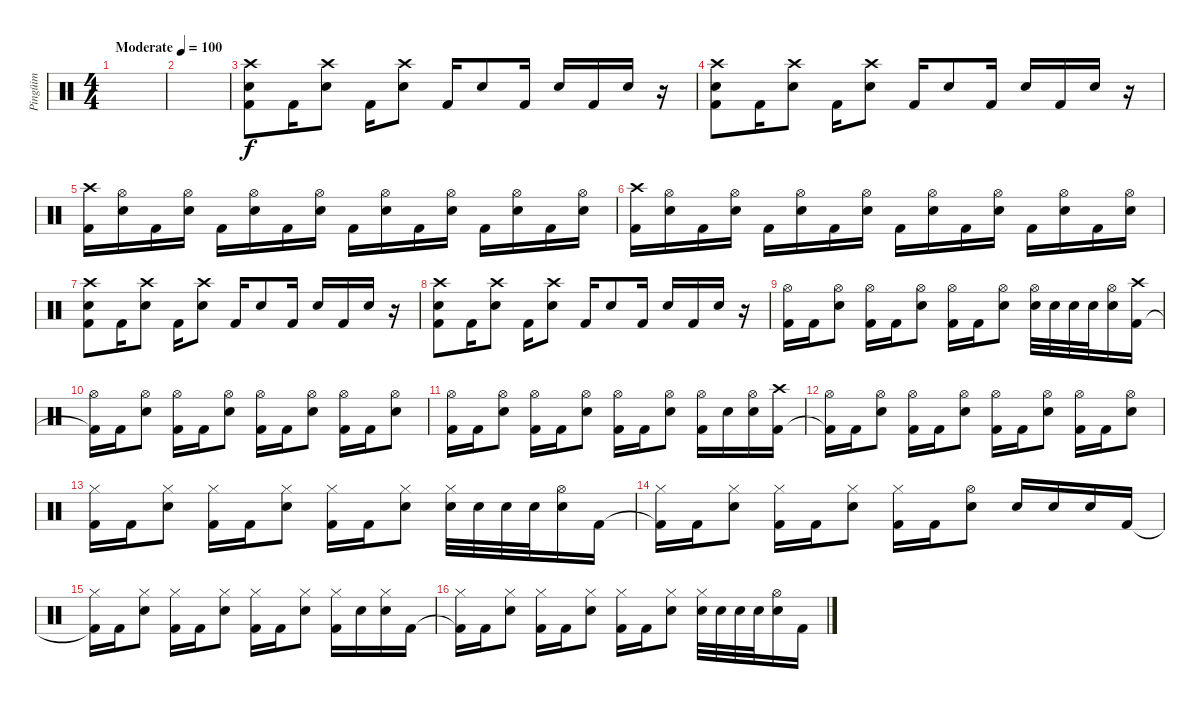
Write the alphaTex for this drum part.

\track ("Pingüim" "Pingüim") {instrument percussion}
\staff {score}
\articulation defaults
\ts (4 4)
\tempo (100 "Moderate")
\clef neutral
\ks c
|
|
("Snare (hit) 2" "Kick (hit) 2" "Crash high (hit)").8 "Kick (hit) 2".16 ("Snare (hit) 2" "Crash high (hit)").8 "Kick (hit) 2".16 ("Snare (hit) 2" "Crash high (hit)").8 "Kick (hit) 2".16 "Snare (hit) 2".8 "Kick (hit) 2".16 "Snare (hit) 2".16 "Kick (hit) 2".16 "Snare (hit) 2".16 r.16 |
("Snare (hit) 2" "Kick (hit) 2" "Crash high (hit)").8 "Kick (hit) 2".16 ("Snare (hit) 2" "Crash high (hit)").8 "Kick (hit) 2".16 ("Snare (hit) 2" "Crash high (hit)").8 "Kick (hit) 2".16 "Snare (hit) 2".8 "Kick (hit) 2".16 "Snare (hit) 2".16 "Kick (hit) 2".16 "Snare (hit) 2".16 r.16 |
("Kick (hit) 2" "Crash high (hit)").16 ("Snare (hit) 2" "Hi-Hat (open)").16 "Kick (hit) 2".16 ("Snare (hit) 2" "Hi-Hat (open)").16 "Kick (hit) 2".16 ("Snare (hit) 2" "Hi-Hat (open)").16 "Kick (hit) 2".16 ("Snare (hit) 2" "Hi-Hat (open)").16 "Kick (hit) 2".16 ("Snare (hit) 2" "Hi-Hat (open)").16 "Kick (hit) 2".16 ("Snare (hit) 2" "Hi-Hat (open)").16 "Kick (hit) 2".16 ("Snare (hit) 2" "Hi-Hat (open)").16 "Kick (hit) 2".16 ("Snare (hit) 2" "Hi-Hat (open)").16 |
("Kick (hit) 2" "Crash high (hit)").16 ("Snare (hit) 2" "Hi-Hat (open)").16 "Kick (hit) 2".16 ("Snare (hit) 2" "Hi-Hat (open)").16 "Kick (hit) 2".16 ("Snare (hit) 2" "Hi-Hat (open)").16 "Kick (hit) 2".16 ("Snare (hit) 2" "Hi-Hat (open)").16 "Kick (hit) 2".16 ("Snare (hit) 2" "Hi-Hat (open)").16 "Kick (hit) 2".16 ("Snare (hit) 2" "Hi-Hat (open)").16 "Kick (hit) 2".16 ("Snare (hit) 2" "Hi-Hat (open)").16 "Kick (hit) 2".16 ("Snare (hit) 2" "Hi-Hat (open)").16 |
("Snare (hit) 2" "Kick (hit) 2" "Crash high (hit)").8 "Kick (hit) 2".16 ("Snare (hit) 2" "Crash high (hit)").8 "Kick (hit) 2".16 ("Snare (hit) 2" "Crash high (hit)").8 "Kick (hit) 2".16 "Snare (hit) 2".8 "Kick (hit) 2".16 "Snare (hit) 2".16 "Kick (hit) 2".16 "Snare (hit) 2".16 r.16 |
("Snare (hit) 2" "Kick (hit) 2" "Crash high (hit)").8 "Kick (hit) 2".16 ("Snare (hit) 2" "Crash high (hit)").8 "Kick (hit) 2".16 ("Snare (hit) 2" "Crash high (hit)").8 "Kick (hit) 2".16 "Snare (hit) 2".8 "Kick (hit) 2".16 "Snare (hit) 2".16 "Kick (hit) 2".16 "Snare (hit) 2".16 r.16 |
("Kick (hit) 2" "Hi-Hat (open)").16 "Kick (hit) 2".16 ("Snare (hit) 2" "Hi-Hat (open)").8 ("Kick (hit) 2" "Hi-Hat (open)").16 "Kick (hit) 2".16 ("Snare (hit) 2" "Hi-Hat (open)").8 ("Kick (hit) 2" "Hi-Hat (open)").16 "Kick (hit) 2".16 ("Snare (hit) 2" "Hi-Hat (open)").8 ("Snare (hit) 2" "Hi-Hat (open)").32 "Snare (hit) 2".32 "Snare (hit) 2".32 "Snare (hit) 2".32 ("Snare (hit) 2" "Hi-Hat (open)").16 ("Kick (hit) 2" "Crash high (hit)").16 |
("Kick (hit) 2"{t} "Hi-Hat (open)").16 "Kick (hit) 2".16 ("Snare (hit) 2" "Hi-Hat (open)").8 ("Kick (hit) 2" "Hi-Hat (open)").16 "Kick (hit) 2".16 ("Snare (hit) 2" "Hi-Hat (open)").8 ("Kick (hit) 2" "Hi-Hat (open)").16 "Kick (hit) 2".16 ("Snare (hit) 2" "Hi-Hat (open)").8 ("Kick (hit) 2" "Hi-Hat (open)").16 "Kick (hit) 2".16 ("Snare (hit) 2" "Hi-Hat (open)").8 |
("Kick (hit) 2" "Hi-Hat (open)").16 "Kick (hit) 2".16 ("Snare (hit) 2" "Hi-Hat (open)").8 ("Kick (hit) 2" "Hi-Hat (open)").16 "Kick (hit) 2".16 ("Snare (hit) 2" "Hi-Hat (open)").8 ("Kick (hit) 2" "Hi-Hat (open)").16 "Kick (hit) 2".16 ("Snare (hit) 2" "Hi-Hat (open)").8 ("Kick (hit) 2" "Hi-Hat (open)").16 "Snare (hit) 2".16 ("Snare (hit) 2" "Hi-Hat (open)").16 ("Kick (hit) 2" "Crash high (hit)").16 |
("Kick (hit) 2"{t} "Hi-Hat (open)").16 "Kick (hit) 2".16 ("Snare (hit) 2" "Hi-Hat (open)").8 ("Kick (hit) 2" "Hi-Hat (open)").16 "Kick (hit) 2".16 ("Snare (hit) 2" "Hi-Hat (open)").8 ("Kick (hit) 2" "Hi-Hat (open)").16 "Kick (hit) 2".16 ("Snare (hit) 2" "Hi-Hat (open)").8 ("Kick (hit) 2" "Hi-Hat (open)").16 "Kick (hit) 2".16 ("Snare (hit) 2" "Hi-Hat (open)").8 |
("Kick (hit) 2" "Hi-Hat (closed)").16 "Kick (hit) 2".16 ("Snare (hit) 2" "Hi-Hat (closed)").8 ("Kick (hit) 2" "Hi-Hat (closed)").16 "Kick (hit) 2".16 ("Snare (hit) 2" "Hi-Hat (closed)").8 ("Kick (hit) 2" "Hi-Hat (closed)").16 "Kick (hit) 2".16 ("Snare (hit) 2" "Hi-Hat (closed)").8 ("Snare (hit) 2" "Hi-Hat (closed)").32 "Snare (hit) 2".32 "Snare (hit) 2".32 "Snare (hit) 2".32 ("Snare (hit) 2" "Hi-Hat (open)").16 "Kick (hit) 2".16 |
("Kick (hit) 2"{t} "Hi-Hat (closed)").16 "Kick (hit) 2".16 ("Snare (hit) 2" "Hi-Hat (closed)").8 ("Kick (hit) 2" "Hi-Hat (closed)").16 "Kick (hit) 2".16 ("Snare (hit) 2" "Hi-Hat (closed)").8 ("Kick (hit) 2" "Hi-Hat (closed)").16 "Kick (hit) 2".16 ("Snare (hit) 2" "Hi-Hat (open)").8 "Snare (hit) 2".16 "Snare (hit) 2".16 "Snare (hit) 2".16 "Kick (hit) 2".16 |
("Kick (hit) 2"{t} "Hi-Hat (closed)").16 "Kick (hit) 2".16 ("Snare (hit) 2" "Hi-Hat (closed)").8 ("Kick (hit) 2" "Hi-Hat (closed)").16 "Kick (hit) 2".16 ("Snare (hit) 2" "Hi-Hat (closed)").8 ("Kick (hit) 2" "Hi-Hat (closed)").16 "Kick (hit) 2".16 ("Snare (hit) 2" "Hi-Hat (closed)").8 ("Kick (hit) 2" "Hi-Hat (closed)").16 "Snare (hit) 2".16 ("Snare (hit) 2" "Hi-Hat (closed)").16 "Kick (hit) 2".16 |
("Kick (hit) 2"{t} "Hi-Hat (closed)").16 "Kick (hit) 2".16 ("Snare (hit) 2" "Hi-Hat (closed)").8 ("Kick (hit) 2" "Hi-Hat (closed)").16 "Kick (hit) 2".16 ("Snare (hit) 2" "Hi-Hat (closed)").8 ("Kick (hit) 2" "Hi-Hat (closed)").16 "Kick (hit) 2".16 ("Snare (hit) 2" "Hi-Hat (closed)").8 ("Snare (hit) 2" "Hi-Hat (closed)").32 "Snare (hit) 2".32 "Snare (hit) 2".32 "Snare (hit) 2".32 ("Snare (hit) 2" "Hi-Hat (open)").16 "Kick (hit) 2".16
